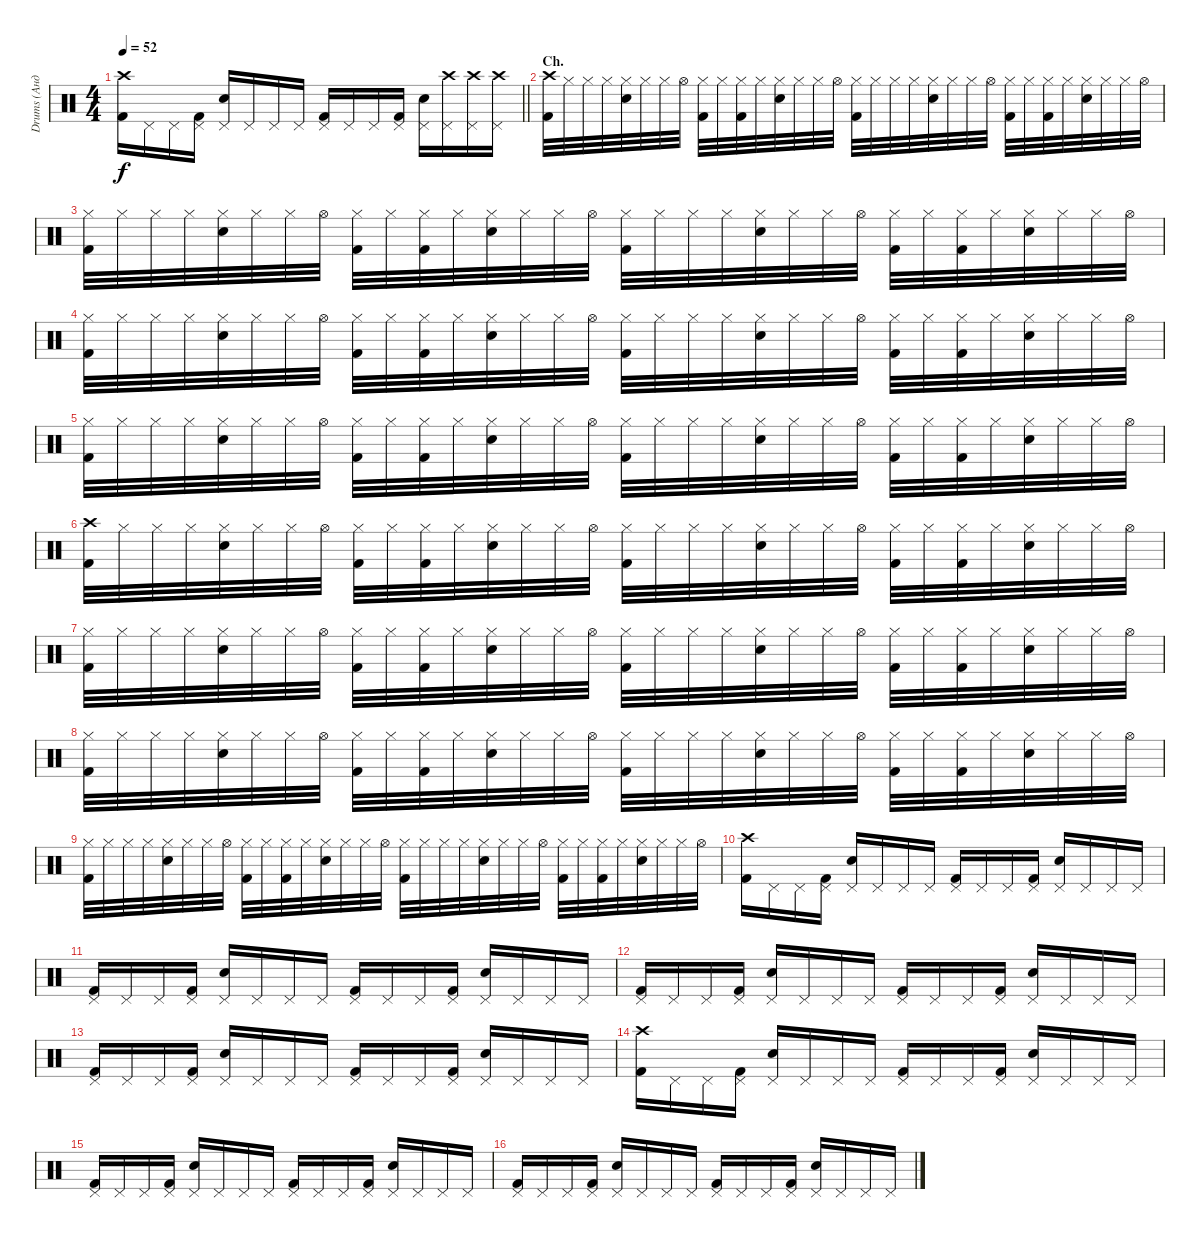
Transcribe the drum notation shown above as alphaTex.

\track ("Drums (Андрей)" "Drums (Анд") {instrument percussion}
\staff {score}
\articulation defaults
\ts (4 4)
\tempo 52
\clef neutral
\barLineRight lightlight
\ks c
("Crash high (hit)" "Kick (hit) 2").16{dy f} "Pedal Hi-Hat (hit)".16 "Pedal Hi-Hat (hit)".16 ("Pedal Hi-Hat (hit)" "Kick (hit) 2").16 ("Pedal Hi-Hat (hit)" "Snare (hit) 2").16 "Pedal Hi-Hat (hit)".16 "Pedal Hi-Hat (hit)".16 "Pedal Hi-Hat (hit)".16 ("Pedal Hi-Hat (hit)" "Kick (hit) 2").16 "Pedal Hi-Hat (hit)".16 "Pedal Hi-Hat (hit)".16 ("Pedal Hi-Hat (hit)" "Kick (hit) 2").16 ("Pedal Hi-Hat (hit)" "Snare (hit) 2").16 ("Pedal Hi-Hat (hit)" "Crash high (hit)").16 ("Pedal Hi-Hat (hit)" "Crash high (hit)").16 ("Pedal Hi-Hat (hit)" "Crash high (hit)").16 |
\section ("" "Ch.")
("Crash high (hit)" "Kick (hit) 2").32 "Hi-Hat (closed)".32 "Hi-Hat (closed)".32 "Hi-Hat (closed)".32 ("Hi-Hat (closed)" "Snare (hit) 2").32 "Hi-Hat (closed)".32 "Hi-Hat (closed)".32 "Hi-Hat (open)".32 ("Hi-Hat (closed)" "Kick (hit) 2").32 "Hi-Hat (closed)".32 ("Hi-Hat (closed)" "Kick (hit) 2").32 "Hi-Hat (closed)".32 ("Hi-Hat (closed)" "Snare (hit) 2").32 "Hi-Hat (closed)".32 "Hi-Hat (closed)".32 "Hi-Hat (open)".32 ("Hi-Hat (closed)" "Kick (hit) 2").32 "Hi-Hat (closed)".32 "Hi-Hat (closed)".32 "Hi-Hat (closed)".32 ("Hi-Hat (closed)" "Snare (hit) 2").32 "Hi-Hat (closed)".32 "Hi-Hat (closed)".32 "Hi-Hat (open)".32 ("Hi-Hat (closed)" "Kick (hit) 2").32 "Hi-Hat (closed)".32 ("Hi-Hat (closed)" "Kick (hit) 2").32 "Hi-Hat (closed)".32 ("Hi-Hat (closed)" "Snare (hit) 2").32 "Hi-Hat (closed)".32 "Hi-Hat (closed)".32 "Hi-Hat (open)".32 |
("Hi-Hat (closed)" "Kick (hit) 2").32 "Hi-Hat (closed)".32 "Hi-Hat (closed)".32 "Hi-Hat (closed)".32 ("Hi-Hat (closed)" "Snare (hit) 2").32 "Hi-Hat (closed)".32 "Hi-Hat (closed)".32 "Hi-Hat (open)".32 ("Hi-Hat (closed)" "Kick (hit) 2").32 "Hi-Hat (closed)".32 ("Hi-Hat (closed)" "Kick (hit) 2").32 "Hi-Hat (closed)".32 ("Hi-Hat (closed)" "Snare (hit) 2").32 "Hi-Hat (closed)".32 "Hi-Hat (closed)".32 "Hi-Hat (open)".32 ("Hi-Hat (closed)" "Kick (hit) 2").32 "Hi-Hat (closed)".32 "Hi-Hat (closed)".32 "Hi-Hat (closed)".32 ("Hi-Hat (closed)" "Snare (hit) 2").32 "Hi-Hat (closed)".32 "Hi-Hat (closed)".32 "Hi-Hat (open)".32 ("Hi-Hat (closed)" "Kick (hit) 2").32 "Hi-Hat (closed)".32 ("Hi-Hat (closed)" "Kick (hit) 2").32 "Hi-Hat (closed)".32 ("Hi-Hat (closed)" "Snare (hit) 2").32 "Hi-Hat (closed)".32 "Hi-Hat (closed)".32 "Hi-Hat (open)".32 |
("Hi-Hat (closed)" "Kick (hit) 2").32 "Hi-Hat (closed)".32 "Hi-Hat (closed)".32 "Hi-Hat (closed)".32 ("Hi-Hat (closed)" "Snare (hit) 2").32 "Hi-Hat (closed)".32 "Hi-Hat (closed)".32 "Hi-Hat (open)".32 ("Hi-Hat (closed)" "Kick (hit) 2").32 "Hi-Hat (closed)".32 ("Hi-Hat (closed)" "Kick (hit) 2").32 "Hi-Hat (closed)".32 ("Hi-Hat (closed)" "Snare (hit) 2").32 "Hi-Hat (closed)".32 "Hi-Hat (closed)".32 "Hi-Hat (open)".32 ("Hi-Hat (closed)" "Kick (hit) 2").32 "Hi-Hat (closed)".32 "Hi-Hat (closed)".32 "Hi-Hat (closed)".32 ("Hi-Hat (closed)" "Snare (hit) 2").32 "Hi-Hat (closed)".32 "Hi-Hat (closed)".32 "Hi-Hat (open)".32 ("Hi-Hat (closed)" "Kick (hit) 2").32 "Hi-Hat (closed)".32 ("Hi-Hat (closed)" "Kick (hit) 2").32 "Hi-Hat (closed)".32 ("Hi-Hat (closed)" "Snare (hit) 2").32 "Hi-Hat (closed)".32 "Hi-Hat (closed)".32 "Hi-Hat (open)".32 |
("Hi-Hat (closed)" "Kick (hit) 2").32 "Hi-Hat (closed)".32 "Hi-Hat (closed)".32 "Hi-Hat (closed)".32 ("Hi-Hat (closed)" "Snare (hit) 2").32 "Hi-Hat (closed)".32 "Hi-Hat (closed)".32 "Hi-Hat (open)".32 ("Hi-Hat (closed)" "Kick (hit) 2").32 "Hi-Hat (closed)".32 ("Hi-Hat (closed)" "Kick (hit) 2").32 "Hi-Hat (closed)".32 ("Hi-Hat (closed)" "Snare (hit) 2").32 "Hi-Hat (closed)".32 "Hi-Hat (closed)".32 "Hi-Hat (open)".32 ("Hi-Hat (closed)" "Kick (hit) 2").32 "Hi-Hat (closed)".32 "Hi-Hat (closed)".32 "Hi-Hat (closed)".32 ("Hi-Hat (closed)" "Snare (hit) 2").32 "Hi-Hat (closed)".32 "Hi-Hat (closed)".32 "Hi-Hat (open)".32 ("Hi-Hat (closed)" "Kick (hit) 2").32 "Hi-Hat (closed)".32 ("Hi-Hat (closed)" "Kick (hit) 2").32 "Hi-Hat (closed)".32 ("Hi-Hat (closed)" "Snare (hit) 2").32 "Hi-Hat (closed)".32 "Hi-Hat (closed)".32 "Hi-Hat (open)".32 |
("Crash high (hit)" "Kick (hit) 2").32 "Hi-Hat (closed)".32 "Hi-Hat (closed)".32 "Hi-Hat (closed)".32 ("Hi-Hat (closed)" "Snare (hit) 2").32 "Hi-Hat (closed)".32 "Hi-Hat (closed)".32 "Hi-Hat (open)".32 ("Hi-Hat (closed)" "Kick (hit) 2").32 "Hi-Hat (closed)".32 ("Hi-Hat (closed)" "Kick (hit) 2").32 "Hi-Hat (closed)".32 ("Hi-Hat (closed)" "Snare (hit) 2").32 "Hi-Hat (closed)".32 "Hi-Hat (closed)".32 "Hi-Hat (open)".32 ("Hi-Hat (closed)" "Kick (hit) 2").32 "Hi-Hat (closed)".32 "Hi-Hat (closed)".32 "Hi-Hat (closed)".32 ("Hi-Hat (closed)" "Snare (hit) 2").32 "Hi-Hat (closed)".32 "Hi-Hat (closed)".32 "Hi-Hat (open)".32 ("Hi-Hat (closed)" "Kick (hit) 2").32 "Hi-Hat (closed)".32 ("Hi-Hat (closed)" "Kick (hit) 2").32 "Hi-Hat (closed)".32 ("Hi-Hat (closed)" "Snare (hit) 2").32 "Hi-Hat (closed)".32 "Hi-Hat (closed)".32 "Hi-Hat (open)".32 |
("Hi-Hat (closed)" "Kick (hit) 2").32 "Hi-Hat (closed)".32 "Hi-Hat (closed)".32 "Hi-Hat (closed)".32 ("Hi-Hat (closed)" "Snare (hit) 2").32 "Hi-Hat (closed)".32 "Hi-Hat (closed)".32 "Hi-Hat (open)".32 ("Hi-Hat (closed)" "Kick (hit) 2").32 "Hi-Hat (closed)".32 ("Hi-Hat (closed)" "Kick (hit) 2").32 "Hi-Hat (closed)".32 ("Hi-Hat (closed)" "Snare (hit) 2").32 "Hi-Hat (closed)".32 "Hi-Hat (closed)".32 "Hi-Hat (open)".32 ("Hi-Hat (closed)" "Kick (hit) 2").32 "Hi-Hat (closed)".32 "Hi-Hat (closed)".32 "Hi-Hat (closed)".32 ("Hi-Hat (closed)" "Snare (hit) 2").32 "Hi-Hat (closed)".32 "Hi-Hat (closed)".32 "Hi-Hat (open)".32 ("Hi-Hat (closed)" "Kick (hit) 2").32 "Hi-Hat (closed)".32 ("Hi-Hat (closed)" "Kick (hit) 2").32 "Hi-Hat (closed)".32 ("Hi-Hat (closed)" "Snare (hit) 2").32 "Hi-Hat (closed)".32 "Hi-Hat (closed)".32 "Hi-Hat (open)".32 |
("Hi-Hat (closed)" "Kick (hit) 2").32 "Hi-Hat (closed)".32 "Hi-Hat (closed)".32 "Hi-Hat (closed)".32 ("Hi-Hat (closed)" "Snare (hit) 2").32 "Hi-Hat (closed)".32 "Hi-Hat (closed)".32 "Hi-Hat (open)".32 ("Hi-Hat (closed)" "Kick (hit) 2").32 "Hi-Hat (closed)".32 ("Hi-Hat (closed)" "Kick (hit) 2").32 "Hi-Hat (closed)".32 ("Hi-Hat (closed)" "Snare (hit) 2").32 "Hi-Hat (closed)".32 "Hi-Hat (closed)".32 "Hi-Hat (open)".32 ("Hi-Hat (closed)" "Kick (hit) 2").32 "Hi-Hat (closed)".32 "Hi-Hat (closed)".32 "Hi-Hat (closed)".32 ("Hi-Hat (closed)" "Snare (hit) 2").32 "Hi-Hat (closed)".32 "Hi-Hat (closed)".32 "Hi-Hat (open)".32 ("Hi-Hat (closed)" "Kick (hit) 2").32 "Hi-Hat (closed)".32 ("Hi-Hat (closed)" "Kick (hit) 2").32 "Hi-Hat (closed)".32 ("Hi-Hat (closed)" "Snare (hit) 2").32 "Hi-Hat (closed)".32 "Hi-Hat (closed)".32 "Hi-Hat (open)".32 |
("Hi-Hat (closed)" "Kick (hit) 2").32 "Hi-Hat (closed)".32 "Hi-Hat (closed)".32 "Hi-Hat (closed)".32 ("Hi-Hat (closed)" "Snare (hit) 2").32 "Hi-Hat (closed)".32 "Hi-Hat (closed)".32 "Hi-Hat (open)".32 ("Hi-Hat (closed)" "Kick (hit) 2").32 "Hi-Hat (closed)".32 ("Hi-Hat (closed)" "Kick (hit) 2").32 "Hi-Hat (closed)".32 ("Hi-Hat (closed)" "Snare (hit) 2").32 "Hi-Hat (closed)".32 "Hi-Hat (closed)".32 "Hi-Hat (open)".32 ("Hi-Hat (closed)" "Kick (hit) 2").32 "Hi-Hat (closed)".32 "Hi-Hat (closed)".32 "Hi-Hat (closed)".32 ("Hi-Hat (closed)" "Snare (hit) 2").32 "Hi-Hat (closed)".32 "Hi-Hat (closed)".32 "Hi-Hat (open)".32 ("Hi-Hat (closed)" "Kick (hit) 2").32 "Hi-Hat (closed)".32 ("Hi-Hat (closed)" "Kick (hit) 2").32 "Hi-Hat (closed)".32 ("Hi-Hat (closed)" "Snare (hit) 2").32 "Hi-Hat (closed)".32 "Hi-Hat (closed)".32 "Hi-Hat (open)".32 |
("Crash high (hit)" "Kick (hit) 2").16 "Pedal Hi-Hat (hit)".16 "Pedal Hi-Hat (hit)".16 ("Pedal Hi-Hat (hit)" "Kick (hit) 2").16 ("Pedal Hi-Hat (hit)" "Snare (hit) 2").16 "Pedal Hi-Hat (hit)".16 "Pedal Hi-Hat (hit)".16 "Pedal Hi-Hat (hit)".16 ("Pedal Hi-Hat (hit)" "Kick (hit) 2").16 "Pedal Hi-Hat (hit)".16 "Pedal Hi-Hat (hit)".16 ("Pedal Hi-Hat (hit)" "Kick (hit) 2").16 ("Pedal Hi-Hat (hit)" "Snare (hit) 2").16 "Pedal Hi-Hat (hit)".16 "Pedal Hi-Hat (hit)".16 "Pedal Hi-Hat (hit)".16 |
("Pedal Hi-Hat (hit)" "Kick (hit) 2").16 "Pedal Hi-Hat (hit)".16 "Pedal Hi-Hat (hit)".16 ("Pedal Hi-Hat (hit)" "Kick (hit) 2").16 ("Pedal Hi-Hat (hit)" "Snare (hit) 2").16 "Pedal Hi-Hat (hit)".16 "Pedal Hi-Hat (hit)".16 "Pedal Hi-Hat (hit)".16 ("Pedal Hi-Hat (hit)" "Kick (hit) 2").16 "Pedal Hi-Hat (hit)".16 "Pedal Hi-Hat (hit)".16 ("Pedal Hi-Hat (hit)" "Kick (hit) 2").16 ("Pedal Hi-Hat (hit)" "Snare (hit) 2").16 "Pedal Hi-Hat (hit)".16 "Pedal Hi-Hat (hit)".16 "Pedal Hi-Hat (hit)".16 |
("Pedal Hi-Hat (hit)" "Kick (hit) 2").16 "Pedal Hi-Hat (hit)".16 "Pedal Hi-Hat (hit)".16 ("Pedal Hi-Hat (hit)" "Kick (hit) 2").16 ("Pedal Hi-Hat (hit)" "Snare (hit) 2").16 "Pedal Hi-Hat (hit)".16 "Pedal Hi-Hat (hit)".16 "Pedal Hi-Hat (hit)".16 ("Pedal Hi-Hat (hit)" "Kick (hit) 2").16 "Pedal Hi-Hat (hit)".16 "Pedal Hi-Hat (hit)".16 ("Pedal Hi-Hat (hit)" "Kick (hit) 2").16 ("Pedal Hi-Hat (hit)" "Snare (hit) 2").16 "Pedal Hi-Hat (hit)".16 "Pedal Hi-Hat (hit)".16 "Pedal Hi-Hat (hit)".16 |
("Pedal Hi-Hat (hit)" "Kick (hit) 2").16 "Pedal Hi-Hat (hit)".16 "Pedal Hi-Hat (hit)".16 ("Pedal Hi-Hat (hit)" "Kick (hit) 2").16 ("Pedal Hi-Hat (hit)" "Snare (hit) 2").16 "Pedal Hi-Hat (hit)".16 "Pedal Hi-Hat (hit)".16 "Pedal Hi-Hat (hit)".16 ("Pedal Hi-Hat (hit)" "Kick (hit) 2").16 "Pedal Hi-Hat (hit)".16 "Pedal Hi-Hat (hit)".16 ("Pedal Hi-Hat (hit)" "Kick (hit) 2").16 ("Pedal Hi-Hat (hit)" "Snare (hit) 2").16 "Pedal Hi-Hat (hit)".16 "Pedal Hi-Hat (hit)".16 "Pedal Hi-Hat (hit)".16 |
("Crash high (hit)" "Kick (hit) 2").16 "Pedal Hi-Hat (hit)".16 "Pedal Hi-Hat (hit)".16 ("Pedal Hi-Hat (hit)" "Kick (hit) 2").16 ("Pedal Hi-Hat (hit)" "Snare (hit) 2").16 "Pedal Hi-Hat (hit)".16 "Pedal Hi-Hat (hit)".16 "Pedal Hi-Hat (hit)".16 ("Pedal Hi-Hat (hit)" "Kick (hit) 2").16 "Pedal Hi-Hat (hit)".16 "Pedal Hi-Hat (hit)".16 ("Pedal Hi-Hat (hit)" "Kick (hit) 2").16 ("Pedal Hi-Hat (hit)" "Snare (hit) 2").16 "Pedal Hi-Hat (hit)".16 "Pedal Hi-Hat (hit)".16 "Pedal Hi-Hat (hit)".16 |
("Pedal Hi-Hat (hit)" "Kick (hit) 2").16 "Pedal Hi-Hat (hit)".16 "Pedal Hi-Hat (hit)".16 ("Pedal Hi-Hat (hit)" "Kick (hit) 2").16 ("Pedal Hi-Hat (hit)" "Snare (hit) 2").16 "Pedal Hi-Hat (hit)".16 "Pedal Hi-Hat (hit)".16 "Pedal Hi-Hat (hit)".16 ("Pedal Hi-Hat (hit)" "Kick (hit) 2").16 "Pedal Hi-Hat (hit)".16 "Pedal Hi-Hat (hit)".16 ("Pedal Hi-Hat (hit)" "Kick (hit) 2").16 ("Pedal Hi-Hat (hit)" "Snare (hit) 2").16 "Pedal Hi-Hat (hit)".16 "Pedal Hi-Hat (hit)".16 "Pedal Hi-Hat (hit)".16 |
("Pedal Hi-Hat (hit)" "Kick (hit) 2").16 "Pedal Hi-Hat (hit)".16 "Pedal Hi-Hat (hit)".16 ("Pedal Hi-Hat (hit)" "Kick (hit) 2").16 ("Pedal Hi-Hat (hit)" "Snare (hit) 2").16 "Pedal Hi-Hat (hit)".16 "Pedal Hi-Hat (hit)".16 "Pedal Hi-Hat (hit)".16 ("Pedal Hi-Hat (hit)" "Kick (hit) 2").16 "Pedal Hi-Hat (hit)".16 "Pedal Hi-Hat (hit)".16 ("Pedal Hi-Hat (hit)" "Kick (hit) 2").16 ("Pedal Hi-Hat (hit)" "Snare (hit) 2").16 "Pedal Hi-Hat (hit)".16 "Pedal Hi-Hat (hit)".16 "Pedal Hi-Hat (hit)".16
